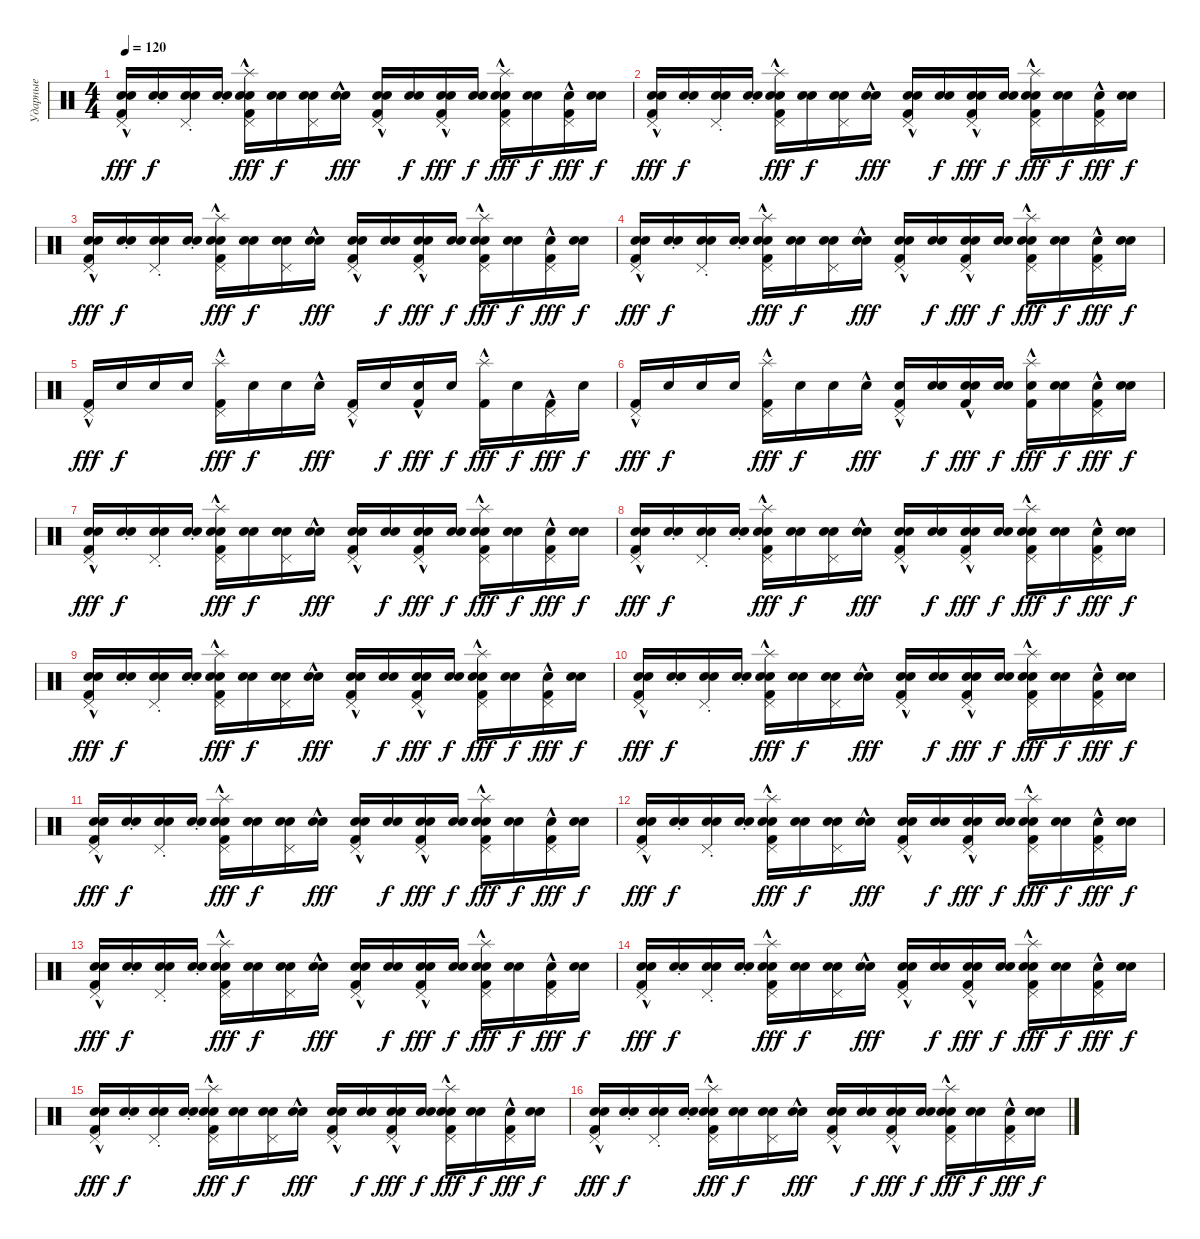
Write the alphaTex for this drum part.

\track ("Ударные" "Ударные") {instrument percussion}
\staff {score}
\articulation defaults
\ts (4 4)
\tempo 120
\clef neutral
\ks c
("Electric Snare (hit)" "Pedal Hi-Hat (hit)"{hac} "Snare (hit) 2"{hac} "Kick (hit) 2"{hac}).16{dy fff} ("Electric Snare (hit)"{st} "Snare (hit)").16{dy f} ("Electric Snare (hit)"{st} "Pedal Hi-Hat (hit)" "Snare (hit)").16 ("Electric Snare (hit)"{st} "Snare (hit)").16 ("Electric Snare (hit)" "Splash (hit)" "Pedal Hi-Hat (hit)" "Snare (hit) 2"{hac} "Kick (hit) 2"{hac}).16{dy fff} ("Electric Snare (hit)" "Snare (hit)").16{dy f} ("Electric Snare (hit)" "Pedal Hi-Hat (hit)" "Snare (hit)").16 ("Electric Snare (hit)" "Snare (hit)"{hac}).16{dy fff} ("Electric Snare (hit)" "Pedal Hi-Hat (hit)" "Snare (hit) 2"{hac} "Kick (hit) 2"{hac}).16 ("Electric Snare (hit)" "Snare (hit)").16{dy f} ("Electric Snare (hit)" "Electric Snare (hit)" "Pedal Hi-Hat (hit)" "Kick (hit) 2"{hac}).16{dy fff} ("Electric Snare (hit)" "Snare (hit)").16{dy f} ("Electric Snare (hit)" "Splash (hit)"{hac} "Pedal Hi-Hat (hit)" "Snare (hit) 2"{hac} "Kick (hit) 2"{hac}).16{dy fff} ("Electric Snare (hit)" "Snare (hit)").16{dy f} ("Electric Snare (hit)" "Pedal Hi-Hat (hit)"{hac} "Kick (hit) 2"{hac}).16{dy fff} ("Electric Snare (hit)" "Snare (hit)").16{dy f} |
("Electric Snare (hit)" "Pedal Hi-Hat (hit)"{hac} "Snare (hit) 2"{hac} "Kick (hit) 2"{hac}).16{dy fff} ("Electric Snare (hit)"{st} "Snare (hit)").16{dy f} ("Electric Snare (hit)"{st} "Pedal Hi-Hat (hit)" "Snare (hit)").16 ("Electric Snare (hit)"{st} "Snare (hit)").16 ("Electric Snare (hit)" "Splash (hit)" "Pedal Hi-Hat (hit)" "Snare (hit) 2"{hac} "Kick (hit) 2"{hac}).16{dy fff} ("Electric Snare (hit)" "Snare (hit)").16{dy f} ("Electric Snare (hit)" "Pedal Hi-Hat (hit)" "Snare (hit)").16 ("Electric Snare (hit)" "Snare (hit)"{hac}).16{dy fff} ("Electric Snare (hit)" "Pedal Hi-Hat (hit)"{hac} "Snare (hit) 2"{hac} "Kick (hit) 2"{hac}).16 ("Electric Snare (hit)" "Snare (hit)").16{dy f} ("Electric Snare (hit)" "Electric Snare (hit)"{hac} "Pedal Hi-Hat (hit)"{hac} "Kick (hit) 2"{hac}).16{dy fff} ("Electric Snare (hit)" "Snare (hit)").16{dy f} ("Electric Snare (hit)" "Splash (hit)" "Pedal Hi-Hat (hit)"{hac} "Snare (hit) 2"{hac} "Kick (hit) 2"{hac}).16{dy fff} ("Electric Snare (hit)" "Snare (hit)").16{dy f} ("Electric Snare (hit)" "Pedal Hi-Hat (hit)"{hac} "Kick (hit) 2"{hac}).16{dy fff} ("Electric Snare (hit)" "Snare (hit)").16{dy f} |
("Electric Snare (hit)" "Pedal Hi-Hat (hit)"{hac} "Snare (hit) 2"{hac} "Kick (hit) 2"{hac}).16{dy fff} ("Electric Snare (hit)"{st} "Snare (hit)").16{dy f} ("Electric Snare (hit)"{st} "Pedal Hi-Hat (hit)" "Snare (hit)").16 ("Electric Snare (hit)"{st} "Snare (hit)").16 ("Electric Snare (hit)" "Splash (hit)" "Pedal Hi-Hat (hit)" "Snare (hit) 2"{hac} "Kick (hit) 2"{hac}).16{dy fff} ("Electric Snare (hit)" "Snare (hit)").16{dy f} ("Electric Snare (hit)" "Pedal Hi-Hat (hit)" "Snare (hit)").16 ("Electric Snare (hit)" "Snare (hit)"{hac}).16{dy fff} ("Electric Snare (hit)" "Pedal Hi-Hat (hit)" "Snare (hit) 2"{hac} "Kick (hit) 2"{hac}).16 ("Electric Snare (hit)" "Snare (hit)").16{dy f} ("Electric Snare (hit)" "Electric Snare (hit)" "Pedal Hi-Hat (hit)" "Kick (hit) 2"{hac}).16{dy fff} ("Electric Snare (hit)" "Snare (hit)").16{dy f} ("Electric Snare (hit)" "Splash (hit)"{hac} "Pedal Hi-Hat (hit)" "Snare (hit) 2"{hac} "Kick (hit) 2"{hac}).16{dy fff} ("Electric Snare (hit)" "Snare (hit)").16{dy f} ("Electric Snare (hit)" "Pedal Hi-Hat (hit)"{hac} "Kick (hit) 2"{hac}).16{dy fff} ("Electric Snare (hit)" "Snare (hit)").16{dy f} |
("Electric Snare (hit)" "Pedal Hi-Hat (hit)"{hac} "Snare (hit) 2"{hac} "Kick (hit) 2"{hac}).16{dy fff} ("Electric Snare (hit)"{st} "Snare (hit)").16{dy f} ("Electric Snare (hit)"{st} "Pedal Hi-Hat (hit)" "Snare (hit)").16 ("Electric Snare (hit)"{st} "Snare (hit)").16 ("Electric Snare (hit)" "Splash (hit)" "Pedal Hi-Hat (hit)" "Snare (hit) 2"{hac} "Kick (hit) 2"{hac}).16{dy fff} ("Electric Snare (hit)" "Snare (hit)").16{dy f} ("Electric Snare (hit)" "Pedal Hi-Hat (hit)" "Snare (hit)").16 ("Electric Snare (hit)" "Snare (hit)"{hac}).16{dy fff} ("Electric Snare (hit)" "Pedal Hi-Hat (hit)"{hac} "Snare (hit) 2"{hac} "Kick (hit) 2"{hac}).16 ("Electric Snare (hit)" "Snare (hit)").16{dy f} ("Electric Snare (hit)" "Electric Snare (hit)"{hac} "Pedal Hi-Hat (hit)"{hac} "Kick (hit) 2"{hac}).16{dy fff} ("Electric Snare (hit)" "Snare (hit)").16{dy f} ("Electric Snare (hit)" "Splash (hit)" "Pedal Hi-Hat (hit)"{hac} "Snare (hit) 2"{hac} "Kick (hit) 2"{hac}).16{dy fff} ("Electric Snare (hit)" "Snare (hit)").16{dy f} ("Electric Snare (hit)" "Pedal Hi-Hat (hit)"{hac} "Kick (hit) 2"{hac}).16{dy fff} ("Electric Snare (hit)" "Snare (hit)").16{dy f} |
("Pedal Hi-Hat (hit)"{hac} "Kick (hit) 2"{hac}).16{dy fff} "Snare (hit)".16{dy f} "Snare (hit)".16 "Snare (hit)".16 ("Splash (hit)" "Pedal Hi-Hat (hit)" "Kick (hit) 2"{hac}).16{dy fff} "Snare (hit)".16{dy f} "Snare (hit)".16 "Snare (hit)"{hac}.16{dy fff} ("Pedal Hi-Hat (hit)" "Kick (hit) 2"{hac}).16 "Snare (hit)".16{dy f} ("Electric Snare (hit)" "Kick (hit) 2"{hac}).16{dy fff} "Snare (hit)".16{dy f} ("Splash (hit)"{hac} "Kick (hit) 2"{hac}).16{dy fff} "Snare (hit)".16{dy f} ("Pedal Hi-Hat (hit)"{hac} "Kick (hit) 2"{hac}).16{dy fff} "Snare (hit)".16{dy f} |
("Pedal Hi-Hat (hit)"{hac} "Kick (hit) 2"{hac}).16{dy fff} "Snare (hit)".16{dy f} "Snare (hit)".16 "Snare (hit)".16 ("Splash (hit)" "Pedal Hi-Hat (hit)" "Kick (hit) 2"{hac}).16{dy fff} "Snare (hit)".16{dy f} "Snare (hit)".16 "Snare (hit)"{hac}.16{dy fff} ("Electric Snare (hit)" "Pedal Hi-Hat (hit)"{hac} "Kick (hit) 2"{hac}).16 ("Electric Snare (hit)" "Snare (hit)").16{dy f} ("Electric Snare (hit)" "Electric Snare (hit)"{hac} "Kick (hit) 2"{hac}).16{dy fff} ("Electric Snare (hit)" "Snare (hit)").16{dy f} ("Electric Snare (hit)" "Splash (hit)" "Kick (hit) 2"{hac}).16{dy fff} ("Electric Snare (hit)" "Snare (hit)").16{dy f} ("Electric Snare (hit)" "Pedal Hi-Hat (hit)"{hac} "Kick (hit) 2"{hac}).16{dy fff} ("Electric Snare (hit)" "Snare (hit)").16{dy f} |
("Electric Snare (hit)" "Pedal Hi-Hat (hit)"{hac} "Snare (hit) 2"{hac} "Kick (hit) 2"{hac}).16{dy fff} ("Electric Snare (hit)"{st} "Snare (hit)").16{dy f} ("Electric Snare (hit)"{st} "Pedal Hi-Hat (hit)" "Snare (hit)").16 ("Electric Snare (hit)"{st} "Snare (hit)").16 ("Electric Snare (hit)" "Splash (hit)" "Pedal Hi-Hat (hit)" "Snare (hit) 2"{hac} "Kick (hit) 2"{hac}).16{dy fff} ("Electric Snare (hit)" "Snare (hit)").16{dy f} ("Electric Snare (hit)" "Pedal Hi-Hat (hit)" "Snare (hit)").16 ("Electric Snare (hit)" "Snare (hit)"{hac}).16{dy fff} ("Electric Snare (hit)" "Pedal Hi-Hat (hit)" "Snare (hit) 2"{hac} "Kick (hit) 2"{hac}).16 ("Electric Snare (hit)" "Snare (hit)").16{dy f} ("Electric Snare (hit)" "Electric Snare (hit)" "Pedal Hi-Hat (hit)" "Kick (hit) 2"{hac}).16{dy fff} ("Electric Snare (hit)" "Snare (hit)").16{dy f} ("Electric Snare (hit)" "Splash (hit)"{hac} "Pedal Hi-Hat (hit)" "Snare (hit) 2"{hac} "Kick (hit) 2"{hac}).16{dy fff} ("Electric Snare (hit)" "Snare (hit)").16{dy f} ("Electric Snare (hit)" "Pedal Hi-Hat (hit)"{hac} "Kick (hit) 2"{hac}).16{dy fff} ("Electric Snare (hit)" "Snare (hit)").16{dy f} |
("Electric Snare (hit)" "Pedal Hi-Hat (hit)"{hac} "Snare (hit) 2"{hac} "Kick (hit) 2"{hac}).16{dy fff} ("Electric Snare (hit)"{st} "Snare (hit)").16{dy f} ("Electric Snare (hit)"{st} "Pedal Hi-Hat (hit)" "Snare (hit)").16 ("Electric Snare (hit)"{st} "Snare (hit)").16 ("Electric Snare (hit)" "Splash (hit)" "Pedal Hi-Hat (hit)" "Snare (hit) 2"{hac} "Kick (hit) 2"{hac}).16{dy fff} ("Electric Snare (hit)" "Snare (hit)").16{dy f} ("Electric Snare (hit)" "Pedal Hi-Hat (hit)" "Snare (hit)").16 ("Electric Snare (hit)" "Snare (hit)"{hac}).16{dy fff} ("Electric Snare (hit)" "Pedal Hi-Hat (hit)"{hac} "Snare (hit) 2"{hac} "Kick (hit) 2"{hac}).16 ("Electric Snare (hit)" "Snare (hit)").16{dy f} ("Electric Snare (hit)" "Electric Snare (hit)"{hac} "Pedal Hi-Hat (hit)"{hac} "Kick (hit) 2"{hac}).16{dy fff} ("Electric Snare (hit)" "Snare (hit)").16{dy f} ("Electric Snare (hit)" "Splash (hit)" "Pedal Hi-Hat (hit)"{hac} "Snare (hit) 2"{hac} "Kick (hit) 2"{hac}).16{dy fff} ("Electric Snare (hit)" "Snare (hit)").16{dy f} ("Electric Snare (hit)" "Pedal Hi-Hat (hit)"{hac} "Kick (hit) 2"{hac}).16{dy fff} ("Electric Snare (hit)" "Snare (hit)").16{dy f} |
("Electric Snare (hit)" "Pedal Hi-Hat (hit)"{hac} "Snare (hit) 2"{hac} "Kick (hit) 2"{hac}).16{dy fff} ("Electric Snare (hit)"{st} "Snare (hit)").16{dy f} ("Electric Snare (hit)"{st} "Pedal Hi-Hat (hit)" "Snare (hit)").16 ("Electric Snare (hit)"{st} "Snare (hit)").16 ("Electric Snare (hit)" "Splash (hit)" "Pedal Hi-Hat (hit)" "Snare (hit) 2"{hac} "Kick (hit) 2"{hac}).16{dy fff} ("Electric Snare (hit)" "Snare (hit)").16{dy f} ("Electric Snare (hit)" "Pedal Hi-Hat (hit)" "Snare (hit)").16 ("Electric Snare (hit)" "Snare (hit)"{hac}).16{dy fff} ("Electric Snare (hit)" "Pedal Hi-Hat (hit)" "Snare (hit) 2"{hac} "Kick (hit) 2"{hac}).16 ("Electric Snare (hit)" "Snare (hit)").16{dy f} ("Electric Snare (hit)" "Electric Snare (hit)" "Pedal Hi-Hat (hit)" "Kick (hit) 2"{hac}).16{dy fff} ("Electric Snare (hit)" "Snare (hit)").16{dy f} ("Electric Snare (hit)" "Splash (hit)"{hac} "Pedal Hi-Hat (hit)" "Snare (hit) 2"{hac} "Kick (hit) 2"{hac}).16{dy fff} ("Electric Snare (hit)" "Snare (hit)").16{dy f} ("Electric Snare (hit)" "Pedal Hi-Hat (hit)"{hac} "Kick (hit) 2"{hac}).16{dy fff} ("Electric Snare (hit)" "Snare (hit)").16{dy f} |
("Electric Snare (hit)" "Pedal Hi-Hat (hit)"{hac} "Snare (hit) 2"{hac} "Kick (hit) 2"{hac}).16{dy fff} ("Electric Snare (hit)"{st} "Snare (hit)").16{dy f} ("Electric Snare (hit)"{st} "Pedal Hi-Hat (hit)" "Snare (hit)").16 ("Electric Snare (hit)"{st} "Snare (hit)").16 ("Electric Snare (hit)" "Splash (hit)" "Pedal Hi-Hat (hit)" "Snare (hit) 2"{hac} "Kick (hit) 2"{hac}).16{dy fff} ("Electric Snare (hit)" "Snare (hit)").16{dy f} ("Electric Snare (hit)" "Pedal Hi-Hat (hit)" "Snare (hit)").16 ("Electric Snare (hit)" "Snare (hit)"{hac}).16{dy fff} ("Electric Snare (hit)" "Pedal Hi-Hat (hit)"{hac} "Snare (hit) 2"{hac} "Kick (hit) 2"{hac}).16 ("Electric Snare (hit)" "Snare (hit)").16{dy f} ("Electric Snare (hit)" "Electric Snare (hit)"{hac} "Pedal Hi-Hat (hit)"{hac} "Kick (hit) 2"{hac}).16{dy fff} ("Electric Snare (hit)" "Snare (hit)").16{dy f} ("Electric Snare (hit)" "Splash (hit)" "Pedal Hi-Hat (hit)"{hac} "Snare (hit) 2"{hac} "Kick (hit) 2"{hac}).16{dy fff} ("Electric Snare (hit)" "Snare (hit)").16{dy f} ("Electric Snare (hit)" "Pedal Hi-Hat (hit)"{hac} "Kick (hit) 2"{hac}).16{dy fff} ("Electric Snare (hit)" "Snare (hit)").16{dy f} |
("Electric Snare (hit)" "Pedal Hi-Hat (hit)"{hac} "Snare (hit) 2"{hac} "Kick (hit) 2"{hac}).16{dy fff} ("Electric Snare (hit)"{st} "Snare (hit)").16{dy f} ("Electric Snare (hit)"{st} "Pedal Hi-Hat (hit)" "Snare (hit)").16 ("Electric Snare (hit)"{st} "Snare (hit)").16 ("Electric Snare (hit)" "Splash (hit)" "Pedal Hi-Hat (hit)" "Snare (hit) 2"{hac} "Kick (hit) 2"{hac}).16{dy fff} ("Electric Snare (hit)" "Snare (hit)").16{dy f} ("Electric Snare (hit)" "Pedal Hi-Hat (hit)" "Snare (hit)").16 ("Electric Snare (hit)" "Snare (hit)"{hac}).16{dy fff} ("Electric Snare (hit)" "Pedal Hi-Hat (hit)" "Snare (hit) 2"{hac} "Kick (hit) 2"{hac}).16 ("Electric Snare (hit)" "Snare (hit)").16{dy f} ("Electric Snare (hit)" "Electric Snare (hit)" "Pedal Hi-Hat (hit)" "Kick (hit) 2"{hac}).16{dy fff} ("Electric Snare (hit)" "Snare (hit)").16{dy f} ("Electric Snare (hit)" "Splash (hit)"{hac} "Pedal Hi-Hat (hit)" "Snare (hit) 2"{hac} "Kick (hit) 2"{hac}).16{dy fff} ("Electric Snare (hit)" "Snare (hit)").16{dy f} ("Electric Snare (hit)" "Pedal Hi-Hat (hit)"{hac} "Kick (hit) 2"{hac}).16{dy fff} ("Electric Snare (hit)" "Snare (hit)").16{dy f} |
("Electric Snare (hit)" "Pedal Hi-Hat (hit)"{hac} "Snare (hit) 2"{hac} "Kick (hit) 2"{hac}).16{dy fff} ("Electric Snare (hit)"{st} "Snare (hit)").16{dy f} ("Electric Snare (hit)"{st} "Pedal Hi-Hat (hit)" "Snare (hit)").16 ("Electric Snare (hit)"{st} "Snare (hit)").16 ("Electric Snare (hit)" "Splash (hit)" "Pedal Hi-Hat (hit)" "Snare (hit) 2"{hac} "Kick (hit) 2"{hac}).16{dy fff} ("Electric Snare (hit)" "Snare (hit)").16{dy f} ("Electric Snare (hit)" "Pedal Hi-Hat (hit)" "Snare (hit)").16 ("Electric Snare (hit)" "Snare (hit)"{hac}).16{dy fff} ("Electric Snare (hit)" "Pedal Hi-Hat (hit)"{hac} "Snare (hit) 2"{hac} "Kick (hit) 2"{hac}).16 ("Electric Snare (hit)" "Snare (hit)").16{dy f} ("Electric Snare (hit)" "Electric Snare (hit)"{hac} "Pedal Hi-Hat (hit)"{hac} "Kick (hit) 2"{hac}).16{dy fff} ("Electric Snare (hit)" "Snare (hit)").16{dy f} ("Electric Snare (hit)" "Splash (hit)" "Pedal Hi-Hat (hit)"{hac} "Snare (hit) 2"{hac} "Kick (hit) 2"{hac}).16{dy fff} ("Electric Snare (hit)" "Snare (hit)").16{dy f} ("Electric Snare (hit)" "Pedal Hi-Hat (hit)"{hac} "Kick (hit) 2"{hac}).16{dy fff} ("Electric Snare (hit)" "Snare (hit)").16{dy f} |
("Electric Snare (hit)" "Pedal Hi-Hat (hit)"{hac} "Snare (hit) 2"{hac} "Kick (hit) 2"{hac}).16{dy fff} ("Electric Snare (hit)"{st} "Snare (hit)").16{dy f} ("Electric Snare (hit)"{st} "Pedal Hi-Hat (hit)" "Snare (hit)").16 ("Electric Snare (hit)"{st} "Snare (hit)").16 ("Electric Snare (hit)" "Splash (hit)" "Pedal Hi-Hat (hit)" "Snare (hit) 2"{hac} "Kick (hit) 2"{hac}).16{dy fff} ("Electric Snare (hit)" "Snare (hit)").16{dy f} ("Electric Snare (hit)" "Pedal Hi-Hat (hit)" "Snare (hit)").16 ("Electric Snare (hit)" "Snare (hit)"{hac}).16{dy fff} ("Electric Snare (hit)" "Pedal Hi-Hat (hit)" "Snare (hit) 2"{hac} "Kick (hit) 2"{hac}).16 ("Electric Snare (hit)" "Snare (hit)").16{dy f} ("Electric Snare (hit)" "Electric Snare (hit)" "Pedal Hi-Hat (hit)" "Kick (hit) 2"{hac}).16{dy fff} ("Electric Snare (hit)" "Snare (hit)").16{dy f} ("Electric Snare (hit)" "Splash (hit)"{hac} "Pedal Hi-Hat (hit)" "Snare (hit) 2"{hac} "Kick (hit) 2"{hac}).16{dy fff} ("Electric Snare (hit)" "Snare (hit)").16{dy f} ("Electric Snare (hit)" "Pedal Hi-Hat (hit)"{hac} "Kick (hit) 2"{hac}).16{dy fff} ("Electric Snare (hit)" "Snare (hit)").16{dy f} |
("Electric Snare (hit)" "Pedal Hi-Hat (hit)"{hac} "Snare (hit) 2"{hac} "Kick (hit) 2"{hac}).16{dy fff} ("Electric Snare (hit)"{st} "Snare (hit)").16{dy f} ("Electric Snare (hit)"{st} "Pedal Hi-Hat (hit)" "Snare (hit)").16 ("Electric Snare (hit)"{st} "Snare (hit)").16 ("Electric Snare (hit)" "Splash (hit)" "Pedal Hi-Hat (hit)" "Snare (hit) 2"{hac} "Kick (hit) 2"{hac}).16{dy fff} ("Electric Snare (hit)" "Snare (hit)").16{dy f} ("Electric Snare (hit)" "Pedal Hi-Hat (hit)" "Snare (hit)").16 ("Electric Snare (hit)" "Snare (hit)"{hac}).16{dy fff} ("Electric Snare (hit)" "Pedal Hi-Hat (hit)"{hac} "Snare (hit) 2"{hac} "Kick (hit) 2"{hac}).16 ("Electric Snare (hit)" "Snare (hit)").16{dy f} ("Electric Snare (hit)" "Electric Snare (hit)"{hac} "Pedal Hi-Hat (hit)"{hac} "Kick (hit) 2"{hac}).16{dy fff} ("Electric Snare (hit)" "Snare (hit)").16{dy f} ("Electric Snare (hit)" "Splash (hit)" "Pedal Hi-Hat (hit)"{hac} "Snare (hit) 2"{hac} "Kick (hit) 2"{hac}).16{dy fff} ("Electric Snare (hit)" "Snare (hit)").16{dy f} ("Electric Snare (hit)" "Pedal Hi-Hat (hit)"{hac} "Kick (hit) 2"{hac}).16{dy fff} ("Electric Snare (hit)" "Snare (hit)").16{dy f} |
("Electric Snare (hit)" "Pedal Hi-Hat (hit)"{hac} "Snare (hit) 2"{hac} "Kick (hit) 2"{hac}).16{dy fff} ("Electric Snare (hit)"{st} "Snare (hit)").16{dy f} ("Electric Snare (hit)"{st} "Pedal Hi-Hat (hit)" "Snare (hit)").16 ("Electric Snare (hit)"{st} "Snare (hit)").16 ("Electric Snare (hit)" "Splash (hit)" "Pedal Hi-Hat (hit)" "Snare (hit) 2"{hac} "Kick (hit) 2"{hac}).16{dy fff} ("Electric Snare (hit)" "Snare (hit)").16{dy f} ("Electric Snare (hit)" "Pedal Hi-Hat (hit)" "Snare (hit)").16 ("Electric Snare (hit)" "Snare (hit)"{hac}).16{dy fff} ("Electric Snare (hit)" "Pedal Hi-Hat (hit)" "Snare (hit) 2"{hac} "Kick (hit) 2"{hac}).16 ("Electric Snare (hit)" "Snare (hit)").16{dy f} ("Electric Snare (hit)" "Electric Snare (hit)" "Pedal Hi-Hat (hit)" "Kick (hit) 2"{hac}).16{dy fff} ("Electric Snare (hit)" "Snare (hit)").16{dy f} ("Electric Snare (hit)" "Splash (hit)"{hac} "Pedal Hi-Hat (hit)" "Snare (hit) 2"{hac} "Kick (hit) 2"{hac}).16{dy fff} ("Electric Snare (hit)" "Snare (hit)").16{dy f} ("Electric Snare (hit)" "Pedal Hi-Hat (hit)"{hac} "Kick (hit) 2"{hac}).16{dy fff} ("Electric Snare (hit)" "Snare (hit)").16{dy f} |
("Electric Snare (hit)" "Pedal Hi-Hat (hit)"{hac} "Snare (hit) 2"{hac} "Kick (hit) 2"{hac}).16{dy fff} ("Electric Snare (hit)"{st} "Snare (hit)").16{dy f} ("Electric Snare (hit)"{st} "Pedal Hi-Hat (hit)" "Snare (hit)").16 ("Electric Snare (hit)"{st} "Snare (hit)").16 ("Electric Snare (hit)" "Splash (hit)" "Pedal Hi-Hat (hit)" "Snare (hit) 2"{hac} "Kick (hit) 2"{hac}).16{dy fff} ("Electric Snare (hit)" "Snare (hit)").16{dy f} ("Electric Snare (hit)" "Pedal Hi-Hat (hit)" "Snare (hit)").16 ("Electric Snare (hit)" "Snare (hit)"{hac}).16{dy fff} ("Electric Snare (hit)" "Pedal Hi-Hat (hit)"{hac} "Snare (hit) 2"{hac} "Kick (hit) 2"{hac}).16 ("Electric Snare (hit)" "Snare (hit)").16{dy f} ("Electric Snare (hit)" "Electric Snare (hit)"{hac} "Pedal Hi-Hat (hit)"{hac} "Kick (hit) 2"{hac}).16{dy fff} ("Electric Snare (hit)" "Snare (hit)").16{dy f} ("Electric Snare (hit)" "Splash (hit)" "Pedal Hi-Hat (hit)"{hac} "Snare (hit) 2"{hac} "Kick (hit) 2"{hac}).16{dy fff} ("Electric Snare (hit)" "Snare (hit)").16{dy f} ("Electric Snare (hit)" "Pedal Hi-Hat (hit)"{hac} "Kick (hit) 2"{hac}).16{dy fff} ("Electric Snare (hit)" "Snare (hit)").16{dy f}
